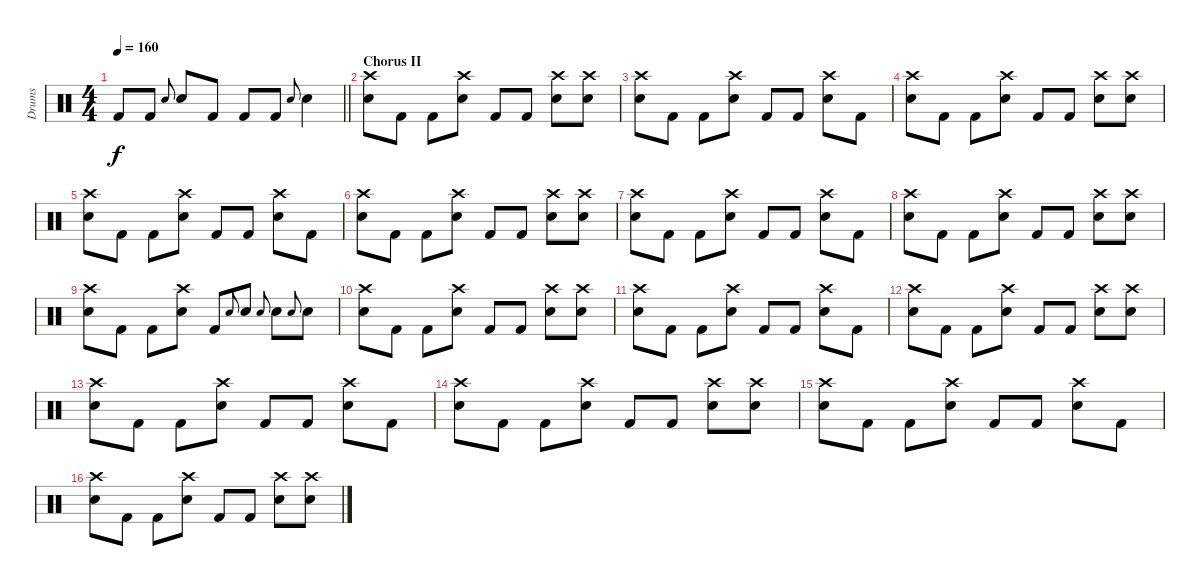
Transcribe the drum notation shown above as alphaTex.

\track ("Drums" "Drums") {instrument percussion}
\staff {score}
\articulation defaults
\ts (4 4)
\tempo 160
\clef neutral
\barLineRight lightlight
\ks c "Kick (hit) 2".8{dy f} "Kick (hit) 2".8 "Electric Snare (hit)".8{gr onbeat} "Electric Snare (hit)".8 "Kick (hit) 2".8 "Kick (hit) 2".8 "Kick (hit) 2".8 "Electric Snare (hit)".8{gr onbeat} "Electric Snare (hit)".4
|
\section ("" "Chorus II")
("Electric Snare (hit)" "Crash high (hit)").8 "Kick (hit) 2".8 "Kick (hit) 2".8 ("Electric Snare (hit)" "Crash high (hit)").8 "Kick (hit) 2".8 "Kick (hit) 2".8 ("Electric Snare (hit)" "Crash high (hit)").8 ("Electric Snare (hit)" "Crash high (hit)").8 |
("Electric Snare (hit)" "Crash high (hit)").8 "Kick (hit) 2".8 "Kick (hit) 2".8 ("Electric Snare (hit)" "Crash high (hit)").8 "Kick (hit) 2".8 "Kick (hit) 2".8 ("Electric Snare (hit)" "Crash high (hit)").8 "Kick (hit) 2".8 |
("Electric Snare (hit)" "Crash high (hit)").8 "Kick (hit) 2".8 "Kick (hit) 2".8 ("Electric Snare (hit)" "Crash high (hit)").8 "Kick (hit) 2".8 "Kick (hit) 2".8 ("Electric Snare (hit)" "Crash high (hit)").8 ("Electric Snare (hit)" "Crash high (hit)").8 |
("Electric Snare (hit)" "Crash high (hit)").8 "Kick (hit) 2".8 "Kick (hit) 2".8 ("Electric Snare (hit)" "Crash high (hit)").8 "Kick (hit) 2".8 "Kick (hit) 2".8 ("Electric Snare (hit)" "Crash high (hit)").8 "Kick (hit) 2".8 |
("Electric Snare (hit)" "Crash high (hit)").8 "Kick (hit) 2".8 "Kick (hit) 2".8 ("Electric Snare (hit)" "Crash high (hit)").8 "Kick (hit) 2".8 "Kick (hit) 2".8 ("Electric Snare (hit)" "Crash high (hit)").8 ("Electric Snare (hit)" "Crash high (hit)").8 |
("Electric Snare (hit)" "Crash high (hit)").8 "Kick (hit) 2".8 "Kick (hit) 2".8 ("Electric Snare (hit)" "Crash high (hit)").8 "Kick (hit) 2".8 "Kick (hit) 2".8 ("Electric Snare (hit)" "Crash high (hit)").8 "Kick (hit) 2".8 |
("Electric Snare (hit)" "Crash high (hit)").8 "Kick (hit) 2".8 "Kick (hit) 2".8 ("Electric Snare (hit)" "Crash high (hit)").8 "Kick (hit) 2".8 "Kick (hit) 2".8 ("Electric Snare (hit)" "Crash high (hit)").8 ("Electric Snare (hit)" "Crash high (hit)").8 |
("Electric Snare (hit)" "Crash high (hit)").8 "Kick (hit) 2".8 "Kick (hit) 2".8 ("Electric Snare (hit)" "Crash high (hit)").8 "Kick (hit) 2".8 "Electric Snare (hit)".8{gr onbeat} "Electric Snare (hit)".8 "Electric Snare (hit)".8{gr onbeat} "Electric Snare (hit)".8 "Electric Snare (hit)".8{gr onbeat} "Electric Snare (hit)".8 |
("Electric Snare (hit)" "Crash high (hit)").8 "Kick (hit) 2".8 "Kick (hit) 2".8 ("Electric Snare (hit)" "Crash high (hit)").8 "Kick (hit) 2".8 "Kick (hit) 2".8 ("Electric Snare (hit)" "Crash high (hit)").8 ("Electric Snare (hit)" "Crash high (hit)").8 |
("Electric Snare (hit)" "Crash high (hit)").8 "Kick (hit) 2".8 "Kick (hit) 2".8 ("Electric Snare (hit)" "Crash high (hit)").8 "Kick (hit) 2".8 "Kick (hit) 2".8 ("Electric Snare (hit)" "Crash high (hit)").8 "Kick (hit) 2".8 |
("Electric Snare (hit)" "Crash high (hit)").8 "Kick (hit) 2".8 "Kick (hit) 2".8 ("Electric Snare (hit)" "Crash high (hit)").8 "Kick (hit) 2".8 "Kick (hit) 2".8 ("Electric Snare (hit)" "Crash high (hit)").8 ("Electric Snare (hit)" "Crash high (hit)").8 |
("Electric Snare (hit)" "Crash high (hit)").8 "Kick (hit) 2".8 "Kick (hit) 2".8 ("Electric Snare (hit)" "Crash high (hit)").8 "Kick (hit) 2".8 "Kick (hit) 2".8 ("Electric Snare (hit)" "Crash high (hit)").8 "Kick (hit) 2".8 |
("Electric Snare (hit)" "Crash high (hit)").8 "Kick (hit) 2".8 "Kick (hit) 2".8 ("Electric Snare (hit)" "Crash high (hit)").8 "Kick (hit) 2".8 "Kick (hit) 2".8 ("Electric Snare (hit)" "Crash high (hit)").8 ("Electric Snare (hit)" "Crash high (hit)").8 |
("Electric Snare (hit)" "Crash high (hit)").8 "Kick (hit) 2".8 "Kick (hit) 2".8 ("Electric Snare (hit)" "Crash high (hit)").8 "Kick (hit) 2".8 "Kick (hit) 2".8 ("Electric Snare (hit)" "Crash high (hit)").8 "Kick (hit) 2".8 |
("Electric Snare (hit)" "Crash high (hit)").8 "Kick (hit) 2".8 "Kick (hit) 2".8 ("Electric Snare (hit)" "Crash high (hit)").8 "Kick (hit) 2".8 "Kick (hit) 2".8 ("Electric Snare (hit)" "Crash high (hit)").8 ("Electric Snare (hit)" "Crash high (hit)").8
